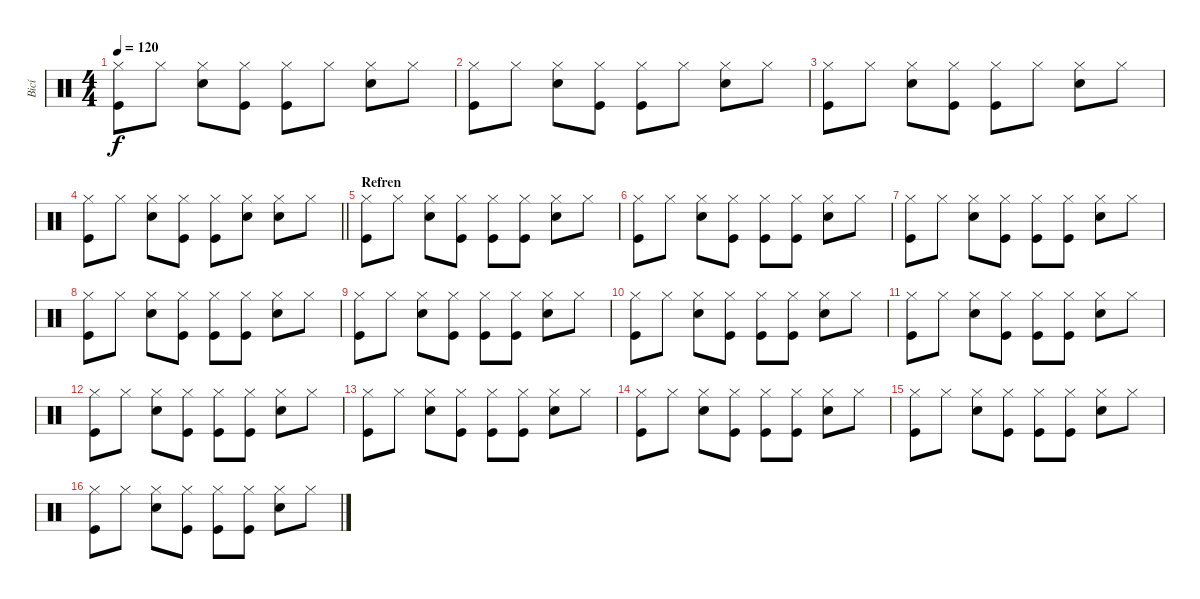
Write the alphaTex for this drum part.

\track ("Bicí" "Bicí") {instrument percussion}
\staff {score}
\articulation defaults
\ts (4 4)
\tempo 120
\clef neutral
\ks c
("Hi-Hat (closed)" "Kick (hit)").8{dy f} "Hi-Hat (closed)".8 ("Hi-Hat (closed)" "Snare (hit) 2").8 ("Hi-Hat (closed)" "Kick (hit)").8 ("Hi-Hat (closed)" "Kick (hit)").8 "Hi-Hat (closed)".8 ("Hi-Hat (closed)" "Snare (hit) 2").8 "Hi-Hat (closed)".8 |
("Hi-Hat (closed)" "Kick (hit)").8 "Hi-Hat (closed)".8 ("Hi-Hat (closed)" "Snare (hit) 2").8 ("Hi-Hat (closed)" "Kick (hit)").8 ("Hi-Hat (closed)" "Kick (hit)").8 "Hi-Hat (closed)".8 ("Hi-Hat (closed)" "Snare (hit) 2").8 "Hi-Hat (closed)".8 |
("Hi-Hat (closed)" "Kick (hit)").8 "Hi-Hat (closed)".8 ("Hi-Hat (closed)" "Snare (hit) 2").8 ("Hi-Hat (closed)" "Kick (hit)").8 ("Hi-Hat (closed)" "Kick (hit)").8 "Hi-Hat (closed)".8 ("Hi-Hat (closed)" "Snare (hit) 2").8 "Hi-Hat (closed)".8 |
\barLineRight lightlight
("Hi-Hat (closed)" "Kick (hit)").8 "Hi-Hat (closed)".8 ("Hi-Hat (closed)" "Snare (hit) 2").8 ("Hi-Hat (closed)" "Kick (hit)").8 ("Hi-Hat (closed)" "Kick (hit)").8 ("Hi-Hat (closed)" "Snare (hit) 2").8 ("Hi-Hat (closed)" "Snare (hit) 2").8 "Hi-Hat (closed)".8 |
\section ("" "Refren")
("Hi-Hat (closed)" "Kick (hit)").8 "Hi-Hat (closed)".8 ("Hi-Hat (closed)" "Snare (hit) 2").8 ("Hi-Hat (closed)" "Kick (hit)").8 ("Hi-Hat (closed)" "Kick (hit)").8 ("Hi-Hat (closed)" "Kick (hit)").8 ("Hi-Hat (closed)" "Snare (hit) 2").8 "Hi-Hat (closed)".8 |
("Hi-Hat (closed)" "Kick (hit)").8 "Hi-Hat (closed)".8 ("Hi-Hat (closed)" "Snare (hit) 2").8 ("Hi-Hat (closed)" "Kick (hit)").8 ("Hi-Hat (closed)" "Kick (hit)").8 ("Hi-Hat (closed)" "Kick (hit)").8 ("Hi-Hat (closed)" "Snare (hit) 2").8 "Hi-Hat (closed)".8 |
("Hi-Hat (closed)" "Kick (hit)").8 "Hi-Hat (closed)".8 ("Hi-Hat (closed)" "Snare (hit) 2").8 ("Hi-Hat (closed)" "Kick (hit)").8 ("Hi-Hat (closed)" "Kick (hit)").8 ("Hi-Hat (closed)" "Kick (hit)").8 ("Hi-Hat (closed)" "Snare (hit) 2").8 "Hi-Hat (closed)".8 |
("Hi-Hat (closed)" "Kick (hit)").8 "Hi-Hat (closed)".8 ("Hi-Hat (closed)" "Snare (hit) 2").8 ("Hi-Hat (closed)" "Kick (hit)").8 ("Hi-Hat (closed)" "Kick (hit)").8 ("Hi-Hat (closed)" "Kick (hit)").8 ("Hi-Hat (closed)" "Snare (hit) 2").8 "Hi-Hat (closed)".8 |
("Hi-Hat (closed)" "Kick (hit)").8 "Hi-Hat (closed)".8 ("Hi-Hat (closed)" "Snare (hit) 2").8 ("Hi-Hat (closed)" "Kick (hit)").8 ("Hi-Hat (closed)" "Kick (hit)").8 ("Hi-Hat (closed)" "Kick (hit)").8 ("Hi-Hat (closed)" "Snare (hit) 2").8 "Hi-Hat (closed)".8 |
("Hi-Hat (closed)" "Kick (hit)").8 "Hi-Hat (closed)".8 ("Hi-Hat (closed)" "Snare (hit) 2").8 ("Hi-Hat (closed)" "Kick (hit)").8 ("Hi-Hat (closed)" "Kick (hit)").8 ("Hi-Hat (closed)" "Kick (hit)").8 ("Hi-Hat (closed)" "Snare (hit) 2").8 "Hi-Hat (closed)".8 |
("Hi-Hat (closed)" "Kick (hit)").8 "Hi-Hat (closed)".8 ("Hi-Hat (closed)" "Snare (hit) 2").8 ("Hi-Hat (closed)" "Kick (hit)").8 ("Hi-Hat (closed)" "Kick (hit)").8 ("Hi-Hat (closed)" "Kick (hit)").8 ("Hi-Hat (closed)" "Snare (hit) 2").8 "Hi-Hat (closed)".8 |
("Hi-Hat (closed)" "Kick (hit)").8 "Hi-Hat (closed)".8 ("Hi-Hat (closed)" "Snare (hit) 2").8 ("Hi-Hat (closed)" "Kick (hit)").8 ("Hi-Hat (closed)" "Kick (hit)").8 ("Hi-Hat (closed)" "Kick (hit)").8 ("Hi-Hat (closed)" "Snare (hit) 2").8 "Hi-Hat (closed)".8 |
("Hi-Hat (closed)" "Kick (hit)").8 "Hi-Hat (closed)".8 ("Hi-Hat (closed)" "Snare (hit) 2").8 ("Hi-Hat (closed)" "Kick (hit)").8 ("Hi-Hat (closed)" "Kick (hit)").8 ("Hi-Hat (closed)" "Kick (hit)").8 ("Hi-Hat (closed)" "Snare (hit) 2").8 "Hi-Hat (closed)".8 |
("Hi-Hat (closed)" "Kick (hit)").8 "Hi-Hat (closed)".8 ("Hi-Hat (closed)" "Snare (hit) 2").8 ("Hi-Hat (closed)" "Kick (hit)").8 ("Hi-Hat (closed)" "Kick (hit)").8 ("Hi-Hat (closed)" "Kick (hit)").8 ("Hi-Hat (closed)" "Snare (hit) 2").8 "Hi-Hat (closed)".8 |
("Hi-Hat (closed)" "Kick (hit)").8 "Hi-Hat (closed)".8 ("Hi-Hat (closed)" "Snare (hit) 2").8 ("Hi-Hat (closed)" "Kick (hit)").8 ("Hi-Hat (closed)" "Kick (hit)").8 ("Hi-Hat (closed)" "Kick (hit)").8 ("Hi-Hat (closed)" "Snare (hit) 2").8 "Hi-Hat (closed)".8 |
("Hi-Hat (closed)" "Kick (hit)").8 "Hi-Hat (closed)".8 ("Hi-Hat (closed)" "Snare (hit) 2").8 ("Hi-Hat (closed)" "Kick (hit)").8 ("Hi-Hat (closed)" "Kick (hit)").8 ("Hi-Hat (closed)" "Kick (hit)").8 ("Hi-Hat (closed)" "Snare (hit) 2").8 "Hi-Hat (closed)".8
